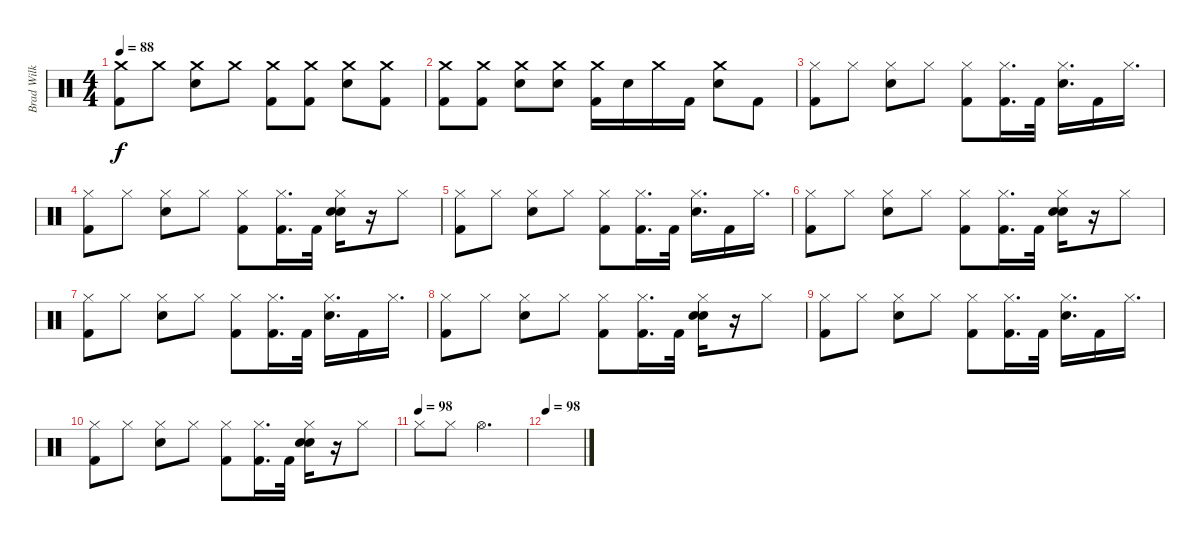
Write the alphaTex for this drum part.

\track ("Brad Wilk" "Brad Wilk") {instrument percussion}
\staff {score}
\articulation defaults
\ts (4 4)
\tempo 88
\clef neutral
\ks c
("Crash medium (hit)" "Kick (hit) 2").8{dy f} "Crash medium (hit)".8 ("Crash medium (hit)" "Snare (hit) 2").8 "Crash medium (hit)".8 ("Crash medium (hit)" "Kick (hit) 2").8 ("Crash medium (hit)" "Kick (hit) 2").8 ("Crash medium (hit)" "Snare (hit) 2").8 ("Crash medium (hit)" "Kick (hit) 2").8 |
("Crash medium (hit)" "Kick (hit) 2").8 ("Crash medium (hit)" "Kick (hit) 2").8 ("Crash medium (hit)" "Snare (hit) 2").8 ("Crash medium (hit)" "Snare (hit) 2").8 ("Crash medium (hit)" "Kick (hit) 2").16 "Snare (hit) 2".16 "Crash medium (hit)".16 "Kick (hit) 2".16 ("Crash medium (hit)" "Snare (hit) 2").8 "Kick (hit) 2".8 |
("Hi-Hat (closed)" "Kick (hit) 2").8 "Hi-Hat (closed)".8 ("Hi-Hat (closed)" "Snare (hit) 2").8 "Hi-Hat (closed)".8 ("Hi-Hat (closed)" "Kick (hit) 2").8 ("Hi-Hat (closed)" "Kick (hit) 2").16{d} "Kick (hit) 2".32 ("Hi-Hat (closed)" "Snare (hit) 2").16{d} "Kick (hit) 2".16 "Hi-Hat (closed)".16{d} |
("Hi-Hat (closed)" "Kick (hit) 2").8 "Hi-Hat (closed)".8 ("Hi-Hat (closed)" "Snare (hit) 2").8 "Hi-Hat (closed)".8 ("Hi-Hat (closed)" "Kick (hit) 2").8 ("Hi-Hat (closed)" "Kick (hit) 2").16{d} "Kick (hit) 2".32 ("Hi-Hat (closed)" "Snare (hit) 2" "Snare (hit) 2").16 r.16 "Hi-Hat (closed)".8 |
("Hi-Hat (closed)" "Kick (hit) 2").8 "Hi-Hat (closed)".8 ("Hi-Hat (closed)" "Snare (hit) 2").8 "Hi-Hat (closed)".8 ("Hi-Hat (closed)" "Kick (hit) 2").8 ("Hi-Hat (closed)" "Kick (hit) 2").16{d} "Kick (hit) 2".32 ("Hi-Hat (closed)" "Snare (hit) 2").16{d} "Kick (hit) 2".16 "Hi-Hat (closed)".16{d} |
("Hi-Hat (closed)" "Kick (hit) 2").8 "Hi-Hat (closed)".8 ("Hi-Hat (closed)" "Snare (hit) 2").8 "Hi-Hat (closed)".8 ("Hi-Hat (closed)" "Kick (hit) 2").8 ("Hi-Hat (closed)" "Kick (hit) 2").16{d} "Kick (hit) 2".32 ("Hi-Hat (closed)" "Snare (hit) 2" "Snare (hit) 2").16 r.16 "Hi-Hat (closed)".8 |
("Hi-Hat (closed)" "Kick (hit) 2").8 "Hi-Hat (closed)".8 ("Hi-Hat (closed)" "Snare (hit) 2").8 "Hi-Hat (closed)".8 ("Hi-Hat (closed)" "Kick (hit) 2").8 ("Hi-Hat (closed)" "Kick (hit) 2").16{d} "Kick (hit) 2".32 ("Hi-Hat (closed)" "Snare (hit) 2").16{d} "Kick (hit) 2".16 "Hi-Hat (closed)".16{d} |
("Hi-Hat (closed)" "Kick (hit) 2").8 "Hi-Hat (closed)".8 ("Hi-Hat (closed)" "Snare (hit) 2").8 "Hi-Hat (closed)".8 ("Hi-Hat (closed)" "Kick (hit) 2").8 ("Hi-Hat (closed)" "Kick (hit) 2").16{d} "Kick (hit) 2".32 ("Hi-Hat (closed)" "Snare (hit) 2" "Snare (hit) 2").16 r.16 "Hi-Hat (closed)".8 |
("Hi-Hat (closed)" "Kick (hit) 2").8 "Hi-Hat (closed)".8 ("Hi-Hat (closed)" "Snare (hit) 2").8 "Hi-Hat (closed)".8 ("Hi-Hat (closed)" "Kick (hit) 2").8 ("Hi-Hat (closed)" "Kick (hit) 2").16{d} "Kick (hit) 2".32 ("Hi-Hat (closed)" "Snare (hit) 2").16{d} "Kick (hit) 2".16 "Hi-Hat (closed)".16{d} |
("Hi-Hat (closed)" "Kick (hit) 2").8 "Hi-Hat (closed)".8 ("Hi-Hat (closed)" "Snare (hit) 2").8 "Hi-Hat (closed)".8 ("Hi-Hat (closed)" "Kick (hit) 2").8 ("Hi-Hat (closed)" "Kick (hit) 2").16{d} "Kick (hit) 2".32 ("Hi-Hat (closed)" "Snare (hit) 2" "Snare (hit) 2").16 r.16 "Hi-Hat (closed)".8 |
\tempo (98)
"Hi-Hat (closed)".8 "Hi-Hat (closed)".8 "Hi-Hat (open)".2{d} |
\tempo 98
